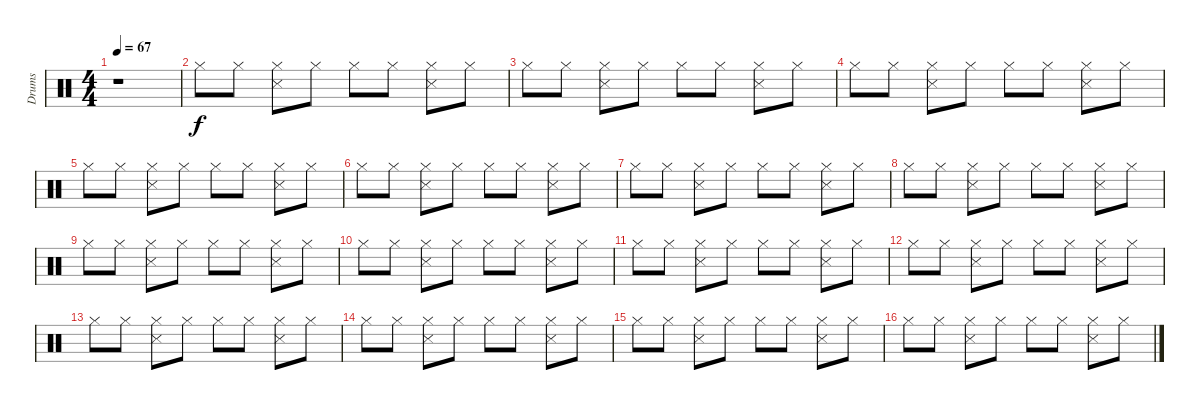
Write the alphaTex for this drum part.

\track ("Drums" "Drums") {instrument percussion}
\staff {score}
\articulation defaults
\ts (4 4)
\tempo 67
\clef neutral
\ks c
r.1{dy f} |
"Hi-Hat (closed)".8 "Hi-Hat (closed)".8 ("Snare (side stick) 3" "Hi-Hat (closed)").8 "Hi-Hat (closed)".8 "Hi-Hat (closed)".8 "Hi-Hat (closed)".8 ("Snare (side stick) 3" "Hi-Hat (closed)").8 "Hi-Hat (closed)".8 |
"Hi-Hat (closed)".8 "Hi-Hat (closed)".8 ("Snare (side stick) 3" "Hi-Hat (closed)").8 "Hi-Hat (closed)".8 "Hi-Hat (closed)".8 "Hi-Hat (closed)".8 ("Snare (side stick) 3" "Hi-Hat (closed)").8 "Hi-Hat (closed)".8 |
"Hi-Hat (closed)".8 "Hi-Hat (closed)".8 ("Snare (side stick) 3" "Hi-Hat (closed)").8 "Hi-Hat (closed)".8 "Hi-Hat (closed)".8 "Hi-Hat (closed)".8 ("Snare (side stick) 3" "Hi-Hat (closed)").8 "Hi-Hat (closed)".8 |
"Hi-Hat (closed)".8 "Hi-Hat (closed)".8 ("Snare (side stick) 3" "Hi-Hat (closed)").8 "Hi-Hat (closed)".8 "Hi-Hat (closed)".8 "Hi-Hat (closed)".8 ("Snare (side stick) 3" "Hi-Hat (closed)").8 "Hi-Hat (closed)".8 |
"Hi-Hat (closed)".8 "Hi-Hat (closed)".8 ("Snare (side stick) 3" "Hi-Hat (closed)").8 "Hi-Hat (closed)".8 "Hi-Hat (closed)".8 "Hi-Hat (closed)".8 ("Snare (side stick) 3" "Hi-Hat (closed)").8 "Hi-Hat (closed)".8 |
"Hi-Hat (closed)".8 "Hi-Hat (closed)".8 ("Snare (side stick) 3" "Hi-Hat (closed)").8 "Hi-Hat (closed)".8 "Hi-Hat (closed)".8 "Hi-Hat (closed)".8 ("Snare (side stick) 3" "Hi-Hat (closed)").8 "Hi-Hat (closed)".8 |
"Hi-Hat (closed)".8 "Hi-Hat (closed)".8 ("Snare (side stick) 3" "Hi-Hat (closed)").8 "Hi-Hat (closed)".8 "Hi-Hat (closed)".8 "Hi-Hat (closed)".8 ("Snare (side stick) 3" "Hi-Hat (closed)").8 "Hi-Hat (closed)".8 |
"Hi-Hat (closed)".8 "Hi-Hat (closed)".8 ("Snare (side stick) 3" "Hi-Hat (closed)").8 "Hi-Hat (closed)".8 "Hi-Hat (closed)".8 "Hi-Hat (closed)".8 ("Snare (side stick) 3" "Hi-Hat (closed)").8 "Hi-Hat (closed)".8 |
"Hi-Hat (closed)".8 "Hi-Hat (closed)".8 ("Snare (side stick) 3" "Hi-Hat (closed)").8 "Hi-Hat (closed)".8 "Hi-Hat (closed)".8 "Hi-Hat (closed)".8 ("Snare (side stick) 3" "Hi-Hat (closed)").8 "Hi-Hat (closed)".8 |
"Hi-Hat (closed)".8 "Hi-Hat (closed)".8 ("Snare (side stick) 3" "Hi-Hat (closed)").8 "Hi-Hat (closed)".8 "Hi-Hat (closed)".8 "Hi-Hat (closed)".8 ("Snare (side stick) 3" "Hi-Hat (closed)").8 "Hi-Hat (closed)".8 |
"Hi-Hat (closed)".8 "Hi-Hat (closed)".8 ("Snare (side stick) 3" "Hi-Hat (closed)").8 "Hi-Hat (closed)".8 "Hi-Hat (closed)".8 "Hi-Hat (closed)".8 ("Snare (side stick) 3" "Hi-Hat (closed)").8 "Hi-Hat (closed)".8 |
"Hi-Hat (closed)".8 "Hi-Hat (closed)".8 ("Snare (side stick) 3" "Hi-Hat (closed)").8 "Hi-Hat (closed)".8 "Hi-Hat (closed)".8 "Hi-Hat (closed)".8 ("Snare (side stick) 3" "Hi-Hat (closed)").8 "Hi-Hat (closed)".8 |
"Hi-Hat (closed)".8 "Hi-Hat (closed)".8 ("Snare (side stick) 3" "Hi-Hat (closed)").8 "Hi-Hat (closed)".8 "Hi-Hat (closed)".8 "Hi-Hat (closed)".8 ("Snare (side stick) 3" "Hi-Hat (closed)").8 "Hi-Hat (closed)".8 |
"Hi-Hat (closed)".8 "Hi-Hat (closed)".8 ("Snare (side stick) 3" "Hi-Hat (closed)").8 "Hi-Hat (closed)".8 "Hi-Hat (closed)".8 "Hi-Hat (closed)".8 ("Snare (side stick) 3" "Hi-Hat (closed)").8 "Hi-Hat (closed)".8 |
"Hi-Hat (closed)".8 "Hi-Hat (closed)".8 ("Snare (side stick) 3" "Hi-Hat (closed)").8 "Hi-Hat (closed)".8 "Hi-Hat (closed)".8 "Hi-Hat (closed)".8 ("Snare (side stick) 3" "Hi-Hat (closed)").8 "Hi-Hat (closed)".8
